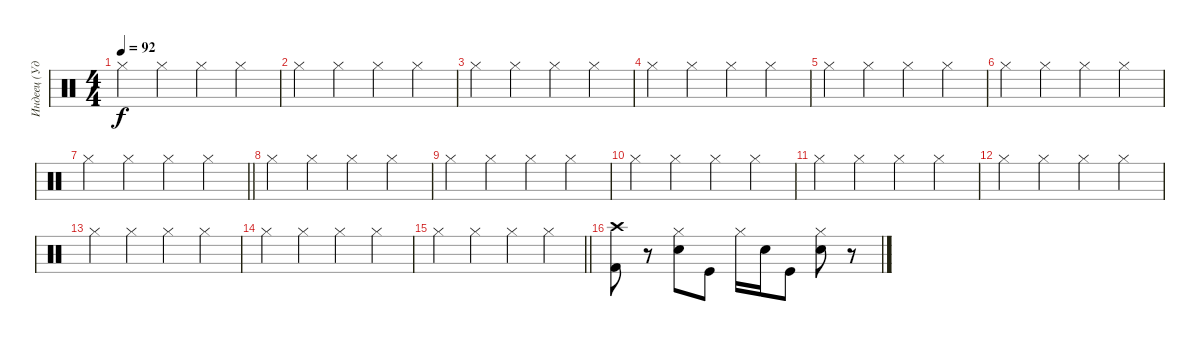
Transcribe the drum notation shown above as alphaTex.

\track ("Индеец (Ударные)" "Индеец (Уд") {instrument percussion}
\staff {score}
\articulation defaults
\ts (4 4)
\tempo 92
\clef neutral
\ks c "Hi-Hat (closed)".4{dy f} "Hi-Hat (closed)".4 "Hi-Hat (closed)".4 "Hi-Hat (closed)".4
|
"Hi-Hat (closed)".4 "Hi-Hat (closed)".4 "Hi-Hat (closed)".4 "Hi-Hat (closed)".4 |
"Hi-Hat (closed)".4 "Hi-Hat (closed)".4 "Hi-Hat (closed)".4 "Hi-Hat (closed)".4 |
"Hi-Hat (closed)".4 "Hi-Hat (closed)".4 "Hi-Hat (closed)".4 "Hi-Hat (closed)".4 |
"Hi-Hat (closed)".4 "Hi-Hat (closed)".4 "Hi-Hat (closed)".4 "Hi-Hat (closed)".4 |
"Hi-Hat (closed)".4 "Hi-Hat (closed)".4 "Hi-Hat (closed)".4 "Hi-Hat (closed)".4 |
\barLineRight lightlight "Hi-Hat (closed)".4 "Hi-Hat (closed)".4 "Hi-Hat (closed)".4 "Hi-Hat (closed)".4
|
"Hi-Hat (closed)".4 "Hi-Hat (closed)".4 "Hi-Hat (closed)".4 "Hi-Hat (closed)".4 |
"Hi-Hat (closed)".4 "Hi-Hat (closed)".4 "Hi-Hat (closed)".4 "Hi-Hat (closed)".4 |
"Hi-Hat (closed)".4 "Hi-Hat (closed)".4 "Hi-Hat (closed)".4 "Hi-Hat (closed)".4 |
"Hi-Hat (closed)".4 "Hi-Hat (closed)".4 "Hi-Hat (closed)".4 "Hi-Hat (closed)".4 |
"Hi-Hat (closed)".4 "Hi-Hat (closed)".4 "Hi-Hat (closed)".4 "Hi-Hat (closed)".4 |
"Hi-Hat (closed)".4 "Hi-Hat (closed)".4 "Hi-Hat (closed)".4 "Hi-Hat (closed)".4 |
"Hi-Hat (closed)".4 "Hi-Hat (closed)".4 "Hi-Hat (closed)".4 "Hi-Hat (closed)".4 |
\barLineRight lightlight "Hi-Hat (closed)".4 "Hi-Hat (closed)".4 "Hi-Hat (closed)".4 "Hi-Hat (closed)".4
|
\section ("" "")
("Crash high (hit)" "Kick (hit) 2").8 r.8 ("Hi-Hat (closed)" "Electric Snare (hit)").8 "Kick (hit)".8 "Hi-Hat (closed)".16 "Electric Snare (hit)".16 "Kick (hit)".8 ("Hi-Hat (closed)" "Electric Snare (hit)").8 r.8
